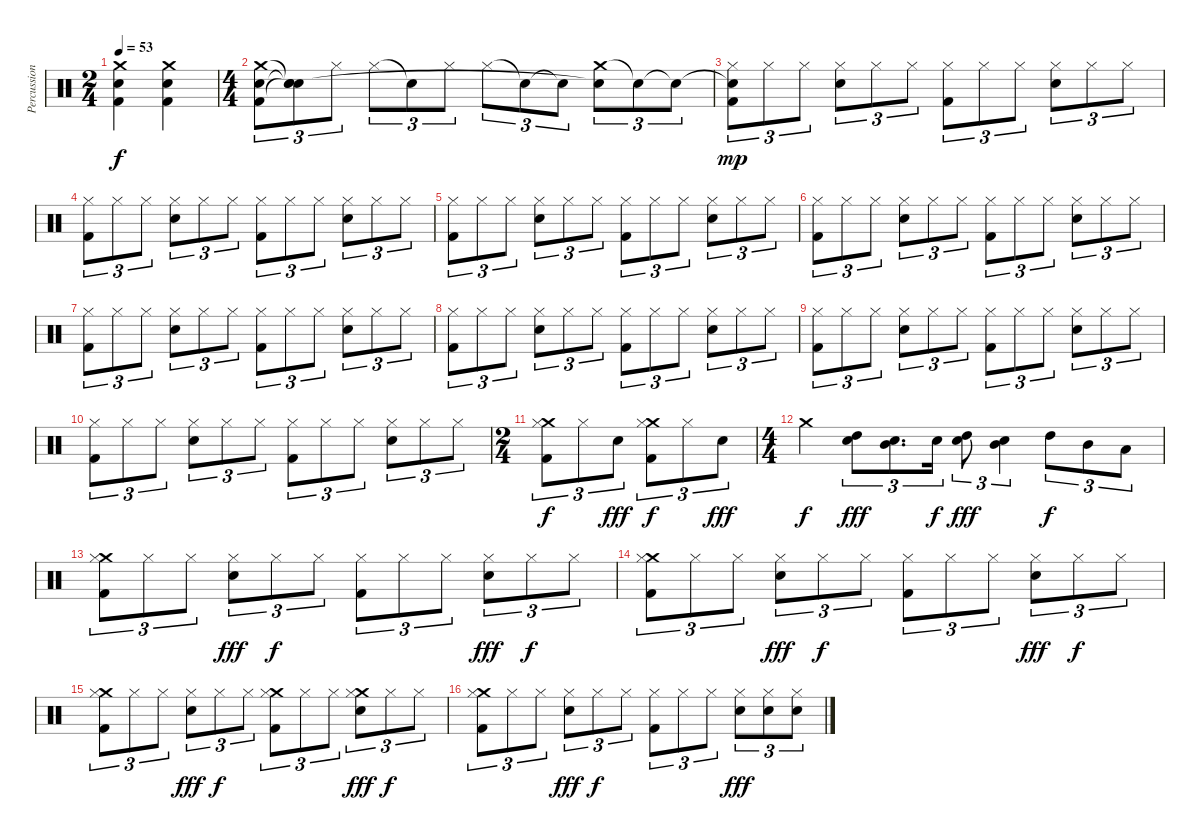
\track ("Percussion" "Percussion") {instrument percussion}
\staff {score}
\articulation defaults
\ts (2 4)
\tempo 53
\clef neutral
\ks c
("Crash medium (hit)" "Kick (hit) 2" "Snare (hit) 2").4{dy f} ("Crash medium (hit)" "Kick (hit) 2" "Snare (hit) 2").4 |
\ts (4 4)
("Crash medium (hit)" "Kick (hit) 2" "Snare (hit) 2").8{tu (3 2)} ("Snare (hit)"{t} "Snare (hit)"{t} "Snare (hit)"{t}).8{tu (3 2)} "Hi-Hat (closed)".8{tu (3 2)} "Hi-Hat (closed)".8{tu (3 2)} "Snare (hit)"{t}.8{tu (3 2)} "Hi-Hat (closed)".8{tu (3 2)} "Hi-Hat (closed)".8{tu (3 2)} "Snare (hit)"{t}.8{tu (3 2)} "Snare (hit)"{t}.8{tu (3 2)} ("Crash medium (hit)" "Snare (hit)"{t}).8{tu (3 2) volume 2} "Snare (hit)"{t}.8{tu (3 2) volume 7} "Snare (hit)"{t}.8{tu (3 2) volume 10} |
("Snare (hit)"{t} "Hi-Hat (closed)" "Kick (hit) 2").8{tu (3 2) dy mp volume 12} "Hi-Hat (closed)".8{tu (3 2)} "Hi-Hat (closed)".8{tu (3 2)} ("Snare (hit) 2" "Hi-Hat (closed)").8{tu (3 2)} "Hi-Hat (closed)".8{tu (3 2)} "Hi-Hat (closed)".8{tu (3 2)} ("Hi-Hat (closed)" "Kick (hit) 2").8{tu (3 2)} "Hi-Hat (closed)".8{tu (3 2)} "Hi-Hat (closed)".8{tu (3 2)} ("Snare (hit) 2" "Hi-Hat (closed)").8{tu (3 2)} "Hi-Hat (closed)".8{tu (3 2)} "Hi-Hat (closed)".8{tu (3 2)} |
("Hi-Hat (closed)" "Kick (hit) 2").8{tu (3 2) volume 12} "Hi-Hat (closed)".8{tu (3 2)} "Hi-Hat (closed)".8{tu (3 2)} ("Snare (hit) 2" "Hi-Hat (closed)").8{tu (3 2)} "Hi-Hat (closed)".8{tu (3 2)} "Hi-Hat (closed)".8{tu (3 2)} ("Hi-Hat (closed)" "Kick (hit) 2").8{tu (3 2)} "Hi-Hat (closed)".8{tu (3 2)} "Hi-Hat (closed)".8{tu (3 2)} ("Snare (hit) 2" "Hi-Hat (closed)").8{tu (3 2)} "Hi-Hat (closed)".8{tu (3 2)} "Hi-Hat (closed)".8{tu (3 2)} |
("Hi-Hat (closed)" "Kick (hit) 2").8{tu (3 2) volume 12} "Hi-Hat (closed)".8{tu (3 2)} "Hi-Hat (closed)".8{tu (3 2)} ("Snare (hit) 2" "Hi-Hat (closed)").8{tu (3 2)} "Hi-Hat (closed)".8{tu (3 2)} "Hi-Hat (closed)".8{tu (3 2)} ("Hi-Hat (closed)" "Kick (hit) 2").8{tu (3 2)} "Hi-Hat (closed)".8{tu (3 2)} "Hi-Hat (closed)".8{tu (3 2)} ("Snare (hit) 2" "Hi-Hat (closed)").8{tu (3 2)} "Hi-Hat (closed)".8{tu (3 2)} "Hi-Hat (closed)".8{tu (3 2)} |
("Hi-Hat (closed)" "Kick (hit) 2").8{tu (3 2) volume 12} "Hi-Hat (closed)".8{tu (3 2)} "Hi-Hat (closed)".8{tu (3 2)} ("Snare (hit) 2" "Hi-Hat (closed)").8{tu (3 2)} "Hi-Hat (closed)".8{tu (3 2)} "Hi-Hat (closed)".8{tu (3 2)} ("Hi-Hat (closed)" "Kick (hit) 2").8{tu (3 2)} "Hi-Hat (closed)".8{tu (3 2)} "Hi-Hat (closed)".8{tu (3 2)} ("Snare (hit) 2" "Hi-Hat (closed)").8{tu (3 2)} "Hi-Hat (closed)".8{tu (3 2)} "Hi-Hat (closed)".8{tu (3 2)} |
("Hi-Hat (closed)" "Kick (hit) 2").8{tu (3 2) volume 12} "Hi-Hat (closed)".8{tu (3 2)} "Hi-Hat (closed)".8{tu (3 2)} ("Snare (hit) 2" "Hi-Hat (closed)").8{tu (3 2)} "Hi-Hat (closed)".8{tu (3 2)} "Hi-Hat (closed)".8{tu (3 2)} ("Hi-Hat (closed)" "Kick (hit) 2").8{tu (3 2)} "Hi-Hat (closed)".8{tu (3 2)} "Hi-Hat (closed)".8{tu (3 2)} ("Snare (hit) 2" "Hi-Hat (closed)").8{tu (3 2)} "Hi-Hat (closed)".8{tu (3 2)} "Hi-Hat (closed)".8{tu (3 2)} |
("Hi-Hat (closed)" "Kick (hit) 2").8{tu (3 2) volume 12} "Hi-Hat (closed)".8{tu (3 2)} "Hi-Hat (closed)".8{tu (3 2)} ("Snare (hit) 2" "Hi-Hat (closed)").8{tu (3 2)} "Hi-Hat (closed)".8{tu (3 2)} "Hi-Hat (closed)".8{tu (3 2)} ("Hi-Hat (closed)" "Kick (hit) 2").8{tu (3 2)} "Hi-Hat (closed)".8{tu (3 2)} "Hi-Hat (closed)".8{tu (3 2)} ("Snare (hit) 2" "Hi-Hat (closed)").8{tu (3 2)} "Hi-Hat (closed)".8{tu (3 2)} "Hi-Hat (closed)".8{tu (3 2)} |
("Hi-Hat (closed)" "Kick (hit) 2").8{tu (3 2) volume 12} "Hi-Hat (closed)".8{tu (3 2)} "Hi-Hat (closed)".8{tu (3 2)} ("Snare (hit) 2" "Hi-Hat (closed)").8{tu (3 2)} "Hi-Hat (closed)".8{tu (3 2)} "Hi-Hat (closed)".8{tu (3 2)} ("Hi-Hat (closed)" "Kick (hit) 2").8{tu (3 2)} "Hi-Hat (closed)".8{tu (3 2)} "Hi-Hat (closed)".8{tu (3 2)} ("Snare (hit) 2" "Hi-Hat (closed)").8{tu (3 2)} "Hi-Hat (closed)".8{tu (3 2)} "Hi-Hat (closed)".8{tu (3 2)} |
("Hi-Hat (closed)" "Kick (hit) 2").8{tu (3 2) volume 12} "Hi-Hat (closed)".8{tu (3 2)} "Hi-Hat (closed)".8{tu (3 2)} ("Snare (hit) 2" "Hi-Hat (closed)").8{tu (3 2)} "Hi-Hat (closed)".8{tu (3 2)} "Hi-Hat (closed)".8{tu (3 2)} ("Hi-Hat (closed)" "Kick (hit) 2").8{tu (3 2)} "Hi-Hat (closed)".8{tu (3 2)} "Hi-Hat (closed)".8{tu (3 2)} ("Snare (hit) 2" "Hi-Hat (closed)").8{tu (3 2)} "Hi-Hat (closed)".8{tu (3 2)} "Hi-Hat (closed)".8{tu (3 2)} |
\ts (2 4)
("Crash medium (hit)" "Hi-Hat (closed)" "Kick (hit) 2").8{tu (3 2) dy f} "Hi-Hat (closed)".8{tu (3 2)} "Snare (hit) 2".8{tu (3 2) dy fff} ("Crash medium (hit)" "Hi-Hat (closed)" "Kick (hit) 2").8{tu (3 2) dy f} "Hi-Hat (closed)".8{tu (3 2)} "Snare (hit) 2".8{tu (3 2) dy fff} |
\ts (4 4)
"Crash medium (hit)".4{dy f} ("High Tom (hit)" "Snare (hit) 2").8{tu (3 2) dy fff} ("Mid Tom (hit)" "Snare (hit) 2").8{d tu (3 2)} "Snare (hit) 2".16{tu (3 2) dy f} ("High Tom (hit)" "Snare (hit) 2").8{tu (3 2) dy fff} ("Mid Tom (hit)" "Snare (hit) 2").4{tu (3 2)} "High Tom (hit)".8{tu (3 2) dy f} "Mid Tom (hit)".8{tu (3 2)} "Low Tom (hit)".8{tu (3 2)} |
("Crash medium (hit)" "Hi-Hat (closed)" "Kick (hit) 2").8{tu (3 2)} "Hi-Hat (closed)".8{tu (3 2)} "Hi-Hat (closed)".8{tu (3 2)} ("Snare (hit) 2" "Hi-Hat (closed)").8{tu (3 2) dy fff} "Hi-Hat (closed)".8{tu (3 2) dy f} "Hi-Hat (closed)".8{tu (3 2)} ("Hi-Hat (closed)" "Kick (hit) 2").8{tu (3 2)} "Hi-Hat (closed)".8{tu (3 2)} "Hi-Hat (closed)".8{tu (3 2)} ("Snare (hit) 2" "Hi-Hat (closed)").8{tu (3 2) dy fff} "Hi-Hat (closed)".8{tu (3 2) dy f} "Hi-Hat (closed)".8{tu (3 2)} |
("Crash medium (hit)" "Hi-Hat (closed)" "Kick (hit) 2").8{tu (3 2)} "Hi-Hat (closed)".8{tu (3 2)} "Hi-Hat (closed)".8{tu (3 2)} ("Snare (hit) 2" "Hi-Hat (closed)").8{tu (3 2) dy fff} "Hi-Hat (closed)".8{tu (3 2) dy f} "Hi-Hat (closed)".8{tu (3 2)} ("Hi-Hat (closed)" "Kick (hit) 2").8{tu (3 2)} "Hi-Hat (closed)".8{tu (3 2)} "Hi-Hat (closed)".8{tu (3 2)} ("Snare (hit) 2" "Hi-Hat (closed)").8{tu (3 2) dy fff} "Hi-Hat (closed)".8{tu (3 2) dy f} "Hi-Hat (closed)".8{tu (3 2)} |
("Crash medium (hit)" "Hi-Hat (closed)" "Kick (hit) 2").8{tu (3 2)} "Hi-Hat (closed)".8{tu (3 2)} "Hi-Hat (closed)".8{tu (3 2)} ("Snare (hit) 2" "Hi-Hat (closed)").8{tu (3 2) dy fff} "Hi-Hat (closed)".8{tu (3 2) dy f} "Hi-Hat (closed)".8{tu (3 2)} ("Crash medium (hit)" "Hi-Hat (closed)" "Kick (hit) 2").8{tu (3 2)} "Hi-Hat (closed)".8{tu (3 2)} "Hi-Hat (closed)".8{tu (3 2)} ("Crash medium (hit)" "Snare (hit) 2" "Hi-Hat (closed)").8{tu (3 2) dy fff} "Hi-Hat (closed)".8{tu (3 2) dy f} "Hi-Hat (closed)".8{tu (3 2)} |
("Crash medium (hit)" "Hi-Hat (closed)" "Kick (hit) 2").8{tu (3 2)} "Hi-Hat (closed)".8{tu (3 2)} "Hi-Hat (closed)".8{tu (3 2)} ("Snare (hit) 2" "Hi-Hat (closed)").8{tu (3 2) dy fff} "Hi-Hat (closed)".8{tu (3 2) dy f} "Hi-Hat (closed)".8{tu (3 2)} ("Hi-Hat (closed)" "Kick (hit) 2").8{tu (3 2)} "Hi-Hat (closed)".8{tu (3 2)} "Hi-Hat (closed)".8{tu (3 2)} ("Snare (hit) 2" "Hi-Hat (closed)").8{tu (3 2) dy fff} ("Snare (hit) 2" "Hi-Hat (closed)").8{tu (3 2)} ("Snare (hit) 2" "Hi-Hat (closed)").8{tu (3 2)}
